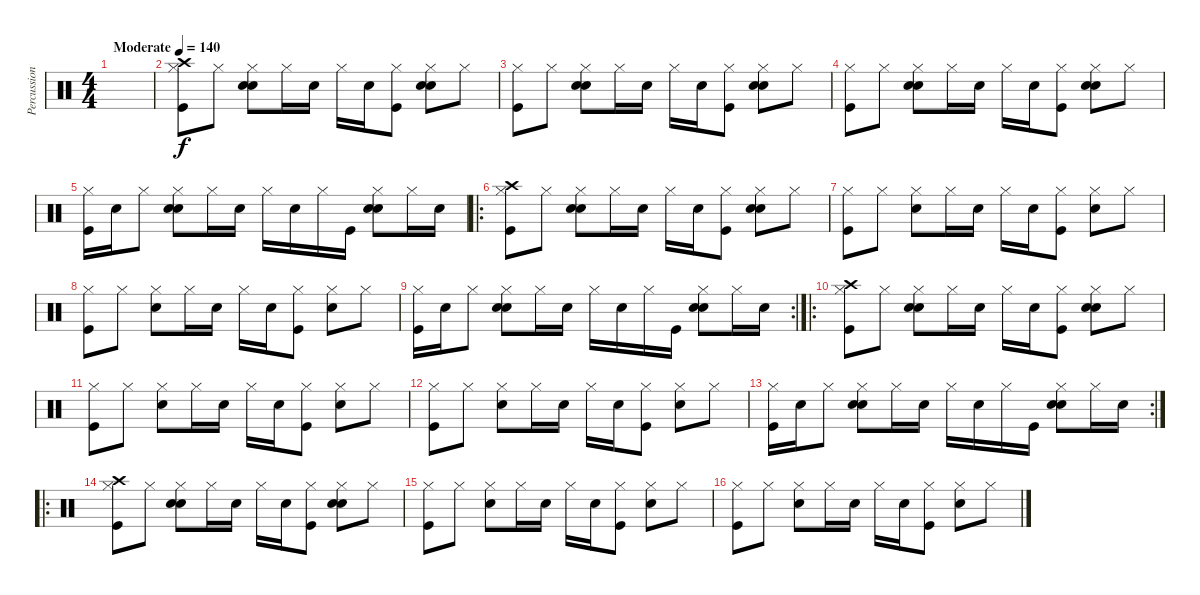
\track ("Percussion" "Percussion") {instrument percussion}
\staff {score}
\articulation defaults
\ts (4 4)
\tempo (140 "Moderate")
\clef neutral
\ks c
|
("Hi-Hat (closed)" "Kick (hit)" "Crash high (hit)").8 "Hi-Hat (closed)".8 ("Hi-Hat (closed)" "Hand Clap (hit)" "Snare (hit) 2").8 "Hi-Hat (closed)".16 "Snare (hit) 2".16 "Hi-Hat (closed)".16 "Snare (hit) 2".16 ("Hi-Hat (closed)" "Kick (hit)").8 ("Hi-Hat (closed)" "Hand Clap (hit)" "Snare (hit) 2").8 "Hi-Hat (closed)".8 |
("Hi-Hat (closed)" "Kick (hit)").8 "Hi-Hat (closed)".8 ("Hi-Hat (closed)" "Hand Clap (hit)" "Snare (hit) 2").8 "Hi-Hat (closed)".16 "Snare (hit) 2".16 "Hi-Hat (closed)".16 "Snare (hit) 2".16 ("Hi-Hat (closed)" "Kick (hit)").8 ("Hi-Hat (closed)" "Hand Clap (hit)" "Snare (hit) 2").8 "Hi-Hat (closed)".8 |
("Hi-Hat (closed)" "Kick (hit)").8 "Hi-Hat (closed)".8 ("Hi-Hat (closed)" "Hand Clap (hit)" "Snare (hit) 2").8 "Hi-Hat (closed)".16 "Snare (hit) 2".16 "Hi-Hat (closed)".16 "Snare (hit) 2".16 ("Hi-Hat (closed)" "Kick (hit)").8 ("Hi-Hat (closed)" "Hand Clap (hit)" "Snare (hit) 2").8 "Hi-Hat (closed)".8 |
("Hi-Hat (closed)" "Kick (hit)").16 "Snare (hit) 2".16 "Hi-Hat (closed)".8 ("Hi-Hat (closed)" "Hand Clap (hit)" "Snare (hit) 2").8 "Hi-Hat (closed)".16 "Snare (hit) 2".16 "Hi-Hat (closed)".16 "Snare (hit) 2".16 "Hi-Hat (closed)".16 "Kick (hit)".16 ("Hi-Hat (closed)" "Hand Clap (hit)" "Snare (hit) 2").8 "Hi-Hat (closed)".16 "Snare (hit) 2".16 |
\ro
("Hi-Hat (closed)" "Kick (hit)" "Crash high (hit)").8 "Hi-Hat (closed)".8 ("Hi-Hat (closed)" "Hand Clap (hit)" "Snare (hit) 2").8 "Hi-Hat (closed)".16 "Snare (hit) 2".16 "Hi-Hat (closed)".16 "Snare (hit) 2".16 ("Hi-Hat (closed)" "Kick (hit)").8 ("Hi-Hat (closed)" "Hand Clap (hit)" "Snare (hit) 2").8 "Hi-Hat (closed)".8 |
("Hi-Hat (closed)" "Kick (hit)").8 "Hi-Hat (closed)".8 ("Hi-Hat (closed)" "Snare (hit) 2").8 "Hi-Hat (closed)".16 "Snare (hit) 2".16 "Hi-Hat (closed)".16 "Snare (hit) 2".16 ("Hi-Hat (closed)" "Kick (hit)").8 ("Hi-Hat (closed)" "Snare (hit) 2").8 "Hi-Hat (closed)".8 |
("Hi-Hat (closed)" "Kick (hit)").8 "Hi-Hat (closed)".8 ("Hi-Hat (closed)" "Snare (hit) 2").8 "Hi-Hat (closed)".16 "Snare (hit) 2".16 "Hi-Hat (closed)".16 "Snare (hit) 2".16 ("Hi-Hat (closed)" "Kick (hit)").8 ("Hi-Hat (closed)" "Snare (hit) 2").8 "Hi-Hat (closed)".8 |
\rc 2
("Hi-Hat (closed)" "Kick (hit)").16 "Snare (hit) 2".16 "Hi-Hat (closed)".8 ("Hi-Hat (closed)" "Hand Clap (hit)" "Snare (hit) 2").8 "Hi-Hat (closed)".16 "Snare (hit) 2".16 "Hi-Hat (closed)".16 "Snare (hit) 2".16 "Hi-Hat (closed)".16 "Kick (hit)".16 ("Hi-Hat (closed)" "Hand Clap (hit)" "Snare (hit) 2").8 "Hi-Hat (closed)".16 "Snare (hit) 2".16 |
\ro
("Hi-Hat (closed)" "Kick (hit)" "Crash high (hit)").8 "Hi-Hat (closed)".8 ("Hi-Hat (closed)" "Hand Clap (hit)" "Snare (hit) 2").8 "Hi-Hat (closed)".16 "Snare (hit) 2".16 "Hi-Hat (closed)".16 "Snare (hit) 2".16 ("Hi-Hat (closed)" "Kick (hit)").8 ("Hi-Hat (closed)" "Hand Clap (hit)" "Snare (hit) 2").8 "Hi-Hat (closed)".8 |
("Hi-Hat (closed)" "Kick (hit)").8 "Hi-Hat (closed)".8 ("Hi-Hat (closed)" "Snare (hit) 2").8 "Hi-Hat (closed)".16 "Snare (hit) 2".16 "Hi-Hat (closed)".16 "Snare (hit) 2".16 ("Hi-Hat (closed)" "Kick (hit)").8 ("Hi-Hat (closed)" "Snare (hit) 2").8 "Hi-Hat (closed)".8 |
("Hi-Hat (closed)" "Kick (hit)").8 "Hi-Hat (closed)".8 ("Hi-Hat (closed)" "Snare (hit) 2").8 "Hi-Hat (closed)".16 "Snare (hit) 2".16 "Hi-Hat (closed)".16 "Snare (hit) 2".16 ("Hi-Hat (closed)" "Kick (hit)").8 ("Hi-Hat (closed)" "Snare (hit) 2").8 "Hi-Hat (closed)".8 |
\rc 2
("Hi-Hat (closed)" "Kick (hit)").16 "Snare (hit) 2".16 "Hi-Hat (closed)".8 ("Hi-Hat (closed)" "Hand Clap (hit)" "Snare (hit) 2").8 "Hi-Hat (closed)".16 "Snare (hit) 2".16 "Hi-Hat (closed)".16 "Snare (hit) 2".16 "Hi-Hat (closed)".16 "Kick (hit)".16 ("Hi-Hat (closed)" "Hand Clap (hit)" "Snare (hit) 2").8 "Hi-Hat (closed)".16 "Snare (hit) 2".16 |
\ro
("Hi-Hat (closed)" "Kick (hit)" "Crash high (hit)").8 "Hi-Hat (closed)".8 ("Hi-Hat (closed)" "Hand Clap (hit)" "Snare (hit) 2").8 "Hi-Hat (closed)".16 "Snare (hit) 2".16 "Hi-Hat (closed)".16 "Snare (hit) 2".16 ("Hi-Hat (closed)" "Kick (hit)").8 ("Hi-Hat (closed)" "Hand Clap (hit)" "Snare (hit) 2").8 "Hi-Hat (closed)".8 |
("Hi-Hat (closed)" "Kick (hit)").8 "Hi-Hat (closed)".8 ("Hi-Hat (closed)" "Snare (hit) 2").8 "Hi-Hat (closed)".16 "Snare (hit) 2".16 "Hi-Hat (closed)".16 "Snare (hit) 2".16 ("Hi-Hat (closed)" "Kick (hit)").8 ("Hi-Hat (closed)" "Snare (hit) 2").8 "Hi-Hat (closed)".8 |
("Hi-Hat (closed)" "Kick (hit)").8 "Hi-Hat (closed)".8 ("Hi-Hat (closed)" "Snare (hit) 2").8 "Hi-Hat (closed)".16 "Snare (hit) 2".16 "Hi-Hat (closed)".16 "Snare (hit) 2".16 ("Hi-Hat (closed)" "Kick (hit)").8 ("Hi-Hat (closed)" "Snare (hit) 2").8 "Hi-Hat (closed)".8
